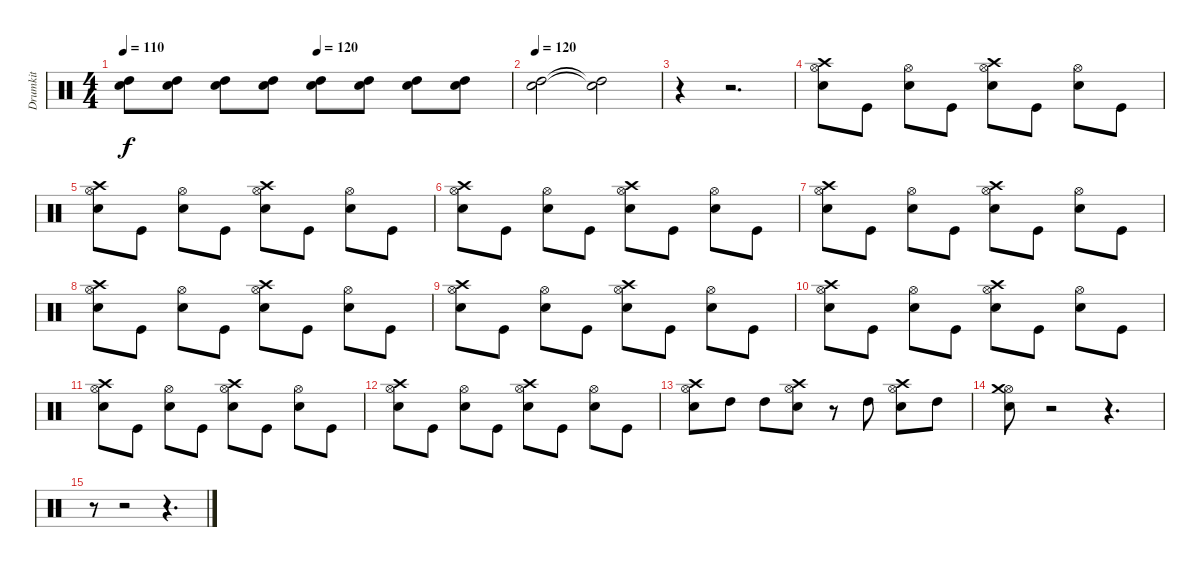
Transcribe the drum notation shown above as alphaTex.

\track ("Drumkit" "Drumkit") {instrument percussion}
\staff {score}
\articulation defaults
\ts (4 4)
\tempo 110
\tempo (120 0.5)
\clef neutral
\ks c
("Snare (hit) 2" "High Tom (hit)").8{dy f} ("Snare (hit) 2" "High Tom (hit)").8 ("Snare (hit) 2" "High Tom (hit)").8 ("Snare (hit) 2" "High Tom (hit)").8 ("Snare (hit) 2" "High Tom (hit)").8 ("Snare (hit) 2" "High Tom (hit)").8 ("Snare (hit) 2" "High Tom (hit)").8 ("Snare (hit) 2" "High Tom (hit)").8 |
\tempo 120
("Snare (hit) 2" "High Tom (hit)").2 ("Snare (hit) 2"{t} "High Tom (hit)"{t}).2 |
r.4 r.2{d} |
("Snare (hit) 2" "Hi-Hat (open)" "Crash high (hit)").8 "Kick (hit)".8 ("Snare (hit) 2" "Hi-Hat (open)").8 "Kick (hit)".8 ("Snare (hit) 2" "Hi-Hat (open)" "Crash high (hit)").8 "Kick (hit)".8 ("Snare (hit) 2" "Hi-Hat (open)").8 "Kick (hit)".8 |
("Snare (hit) 2" "Hi-Hat (open)" "Crash high (hit)").8 "Kick (hit)".8 ("Snare (hit) 2" "Hi-Hat (open)").8 "Kick (hit)".8 ("Snare (hit) 2" "Hi-Hat (open)" "Crash high (hit)").8 "Kick (hit)".8 ("Snare (hit) 2" "Hi-Hat (open)").8 "Kick (hit)".8 |
("Snare (hit) 2" "Hi-Hat (open)" "Crash high (hit)").8 "Kick (hit)".8 ("Snare (hit) 2" "Hi-Hat (open)").8 "Kick (hit)".8 ("Snare (hit) 2" "Hi-Hat (open)" "Crash high (hit)").8 "Kick (hit)".8 ("Snare (hit) 2" "Hi-Hat (open)").8 "Kick (hit)".8 |
("Snare (hit) 2" "Hi-Hat (open)" "Crash high (hit)").8 "Kick (hit)".8 ("Snare (hit) 2" "Hi-Hat (open)").8 "Kick (hit)".8 ("Snare (hit) 2" "Hi-Hat (open)" "Crash high (hit)").8 "Kick (hit)".8 ("Snare (hit) 2" "Hi-Hat (open)").8 "Kick (hit)".8 |
("Snare (hit) 2" "Hi-Hat (open)" "Crash high (hit)").8 "Kick (hit)".8 ("Snare (hit) 2" "Hi-Hat (open)").8 "Kick (hit)".8 ("Snare (hit) 2" "Hi-Hat (open)" "Crash high (hit)").8 "Kick (hit)".8 ("Snare (hit) 2" "Hi-Hat (open)").8 "Kick (hit)".8 |
("Snare (hit) 2" "Hi-Hat (open)" "Crash high (hit)").8 "Kick (hit)".8 ("Snare (hit) 2" "Hi-Hat (open)").8 "Kick (hit)".8 ("Snare (hit) 2" "Hi-Hat (open)" "Crash high (hit)").8 "Kick (hit)".8 ("Snare (hit) 2" "Hi-Hat (open)").8 "Kick (hit)".8 |
("Snare (hit) 2" "Hi-Hat (open)" "Crash high (hit)").8 "Kick (hit)".8 ("Snare (hit) 2" "Hi-Hat (open)").8 "Kick (hit)".8 ("Snare (hit) 2" "Hi-Hat (open)" "Crash high (hit)").8 "Kick (hit)".8 ("Snare (hit) 2" "Hi-Hat (open)").8 "Kick (hit)".8 |
("Snare (hit) 2" "Hi-Hat (open)" "Crash high (hit)").8 "Kick (hit)".8 ("Snare (hit) 2" "Hi-Hat (open)").8 "Kick (hit)".8 ("Snare (hit) 2" "Hi-Hat (open)" "Crash high (hit)").8 "Kick (hit)".8 ("Snare (hit) 2" "Hi-Hat (open)").8 "Kick (hit)".8 |
("Snare (hit) 2" "Hi-Hat (open)" "Crash high (hit)").8 "Kick (hit)".8 ("Snare (hit) 2" "Hi-Hat (open)").8 "Kick (hit)".8 ("Snare (hit) 2" "Hi-Hat (open)" "Crash high (hit)").8 "Kick (hit)".8 ("Snare (hit) 2" "Hi-Hat (open)").8 "Kick (hit)".8 |
("Snare (hit) 2" "Hi-Hat (open)" "Crash high (hit)").8 "High Tom (hit)".8 "High Tom (hit)".8 ("Hi-Hat (open)" "Snare (hit) 2" "Crash high (hit)").8 r.8 "High Tom (hit)".8 ("Hi-Hat (open)" "Snare (hit) 2" "Crash high (hit)").8 "High Tom (hit)".8 |
("Hi-Hat (open)" "Snare (hit) 2" "Crash medium (hit)").8 r.2 r.4{d} |
r.8 r.2 r.4{d}
